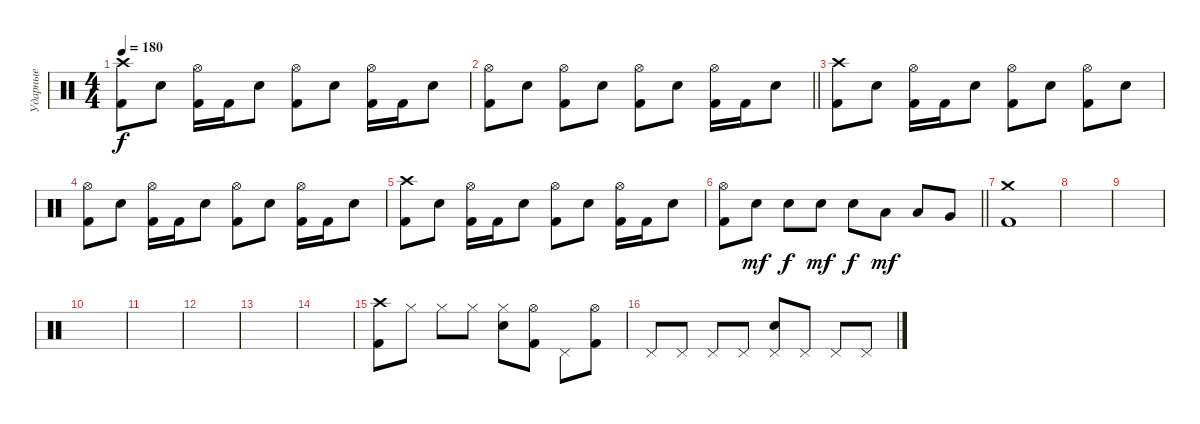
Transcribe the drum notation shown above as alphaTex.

\track ("Ударные" "Ударные") {instrument percussion}
\staff {score}
\articulation defaults
\ts (4 4)
\tempo 180
\clef neutral
\ks c
("Crash high (hit)" "Kick (hit) 2").8{dy f} "Electric Snare (hit)".8 ("Hi-Hat (open)" "Kick (hit) 2").16 "Kick (hit) 2".16 "Electric Snare (hit)".8 ("Hi-Hat (open)" "Kick (hit) 2").8 "Electric Snare (hit)".8 ("Hi-Hat (open)" "Kick (hit) 2").16 "Kick (hit) 2".16 "Electric Snare (hit)".8 |
\barLineRight lightlight
("Hi-Hat (open)" "Kick (hit) 2").8 "Electric Snare (hit)".8 ("Hi-Hat (open)" "Kick (hit) 2").8 "Electric Snare (hit)".8 ("Hi-Hat (open)" "Kick (hit) 2").8 "Electric Snare (hit)".8 ("Hi-Hat (open)" "Kick (hit) 2").16 "Kick (hit) 2".16 "Electric Snare (hit)".8 |
("Crash high (hit)" "Kick (hit) 2").8 "Electric Snare (hit)".8 ("Hi-Hat (open)" "Kick (hit) 2").16 "Kick (hit) 2".16 "Electric Snare (hit)".8 ("Hi-Hat (open)" "Kick (hit) 2").8 "Electric Snare (hit)".8 ("Hi-Hat (open)" "Kick (hit) 2").8 "Electric Snare (hit)".8 |
("Hi-Hat (open)" "Kick (hit) 2").8 "Electric Snare (hit)".8 ("Hi-Hat (open)" "Kick (hit) 2").16 "Kick (hit) 2".16 "Electric Snare (hit)".8 ("Hi-Hat (open)" "Kick (hit) 2").8 "Electric Snare (hit)".8 ("Hi-Hat (open)" "Kick (hit) 2").16 "Kick (hit) 2".16 "Electric Snare (hit)".8 |
("Crash high (hit)" "Kick (hit) 2").8 "Electric Snare (hit)".8 ("Hi-Hat (open)" "Kick (hit) 2").16 "Kick (hit) 2".16 "Electric Snare (hit)".8 ("Hi-Hat (open)" "Kick (hit) 2").8 "Electric Snare (hit)".8 ("Hi-Hat (open)" "Kick (hit) 2").16 "Kick (hit) 2".16 "Electric Snare (hit)".8 |
\barLineRight lightlight
("Hi-Hat (open)" "Kick (hit) 2").8 "Electric Snare (hit)".8{dy mf} "Electric Snare (hit)".8{dy f} "Electric Snare (hit)".8{dy mf} "Electric Snare (hit)".8{dy f} "Low Tom (hit)".8{dy mf} "Low Tom (hit)".8 "Very Low Tom (hit)".8 |
("Crash medium (hit)" "Kick (hit) 2").1 |
|
|
|
|
|
|
|
("Crash high (hit)" "Kick (hit) 2").8 "Hi-Hat (closed)".8 "Hi-Hat (closed)".8 "Hi-Hat (closed)".8 ("Hi-Hat (closed)" "Electric Snare (hit)").8 ("Hi-Hat (open)" "Kick (hit) 2").8 "Pedal Hi-Hat (hit)".8 ("Hi-Hat (open)" "Kick (hit) 2").8 |
"Pedal Hi-Hat (hit)".8 "Pedal Hi-Hat (hit)".8 "Pedal Hi-Hat (hit)".8 "Pedal Hi-Hat (hit)".8 ("Pedal Hi-Hat (hit)" "Electric Snare (hit)").8 "Pedal Hi-Hat (hit)".8 "Pedal Hi-Hat (hit)".8 "Pedal Hi-Hat (hit)".8
